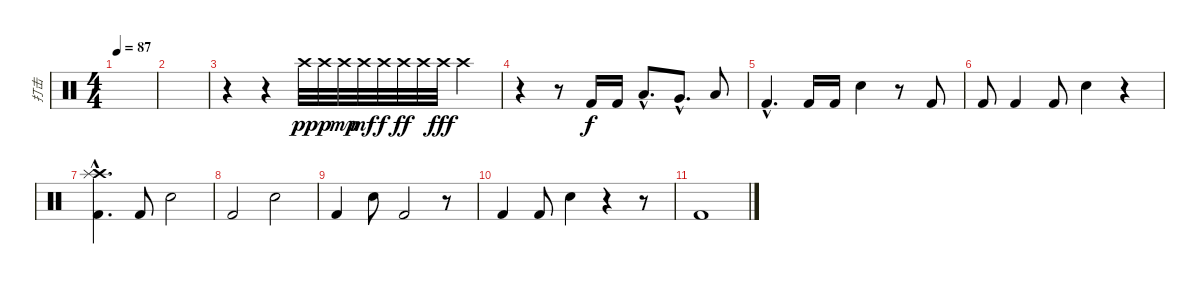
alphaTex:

\track ("打击" "打击") {instrument percussion}
\staff {score}
\articulation defaults
\ts (4 4)
\tempo 87
\clef neutral
\ks c
|
|
r.4 r.4 "Crash high (hit)".32{dy pp} "Crash high (hit)".32{dy p} "Crash high (hit)".32{dy mp} "Crash high (hit)".32{dy mf} "Crash high (hit)".32{dy f} "Crash high (hit)".32{dy ff} "Crash high (hit)".32 "Crash high (hit)".32{dy fff} "Crash high (hit)".4 |
r.4 r.8 "Kick (hit) 2".16{dy f} "Kick (hit) 2".16 "Low Tom (hit)"{hac}.8{d} "Very Low Tom (hit)"{hac}.8{d} "Low Floor Tom (hit)".8 |
"Kick (hit) 2"{hac}.4{d} "Kick (hit) 2".16 "Kick (hit) 2".16 "Snare (hit) 2".4 r.8 "Kick (hit) 2".8 |
"Kick (hit) 2".8 "Kick (hit) 2".4 "Kick (hit) 2".8 "Snare (hit) 2".4 r.4 |
("Kick (hit) 2"{hac} "Crash high (hit)"{hac} "Splash (hit)"{hac}).4{d} "Kick (hit) 2".8 "Snare (hit) 2".2 |
"Kick (hit) 2".2 "Snare (hit) 2".2 |
"Kick (hit) 2".4 "Snare (hit) 2".8 "Kick (hit) 2".2 r.8 |
"Kick (hit) 2".4 "Kick (hit) 2".8 "Snare (hit) 2".4 r.4 r.8 |
"Kick (hit) 2".1
